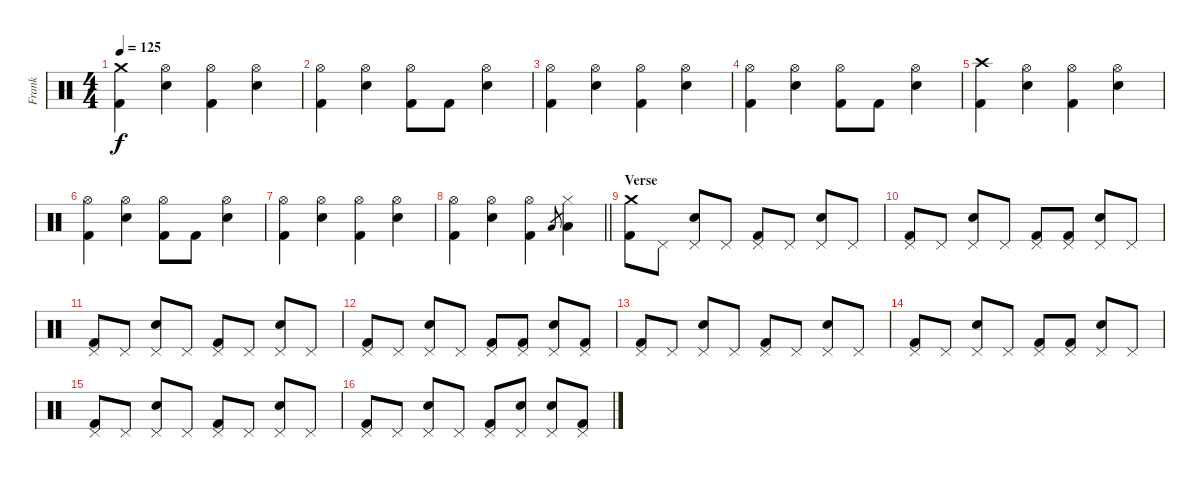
\track ("Frank" "Frank") {instrument percussion}
\staff {score}
\articulation defaults
\ts (4 4)
\tempo 125
\clef neutral
\ks c
("Crash medium (hit)" "Kick (hit) 2").4{dy f} ("Hi-Hat (open)" "Electric Snare (hit)").4 ("Hi-Hat (open)" "Kick (hit) 2").4 ("Hi-Hat (open)" "Electric Snare (hit)").4 |
("Hi-Hat (open)" "Kick (hit) 2").4 ("Hi-Hat (open)" "Electric Snare (hit)").4 ("Hi-Hat (open)" "Kick (hit) 2").8 "Kick (hit) 2".8 ("Hi-Hat (open)" "Electric Snare (hit)").4 |
("Hi-Hat (open)" "Kick (hit) 2").4 ("Hi-Hat (open)" "Electric Snare (hit)").4 ("Hi-Hat (open)" "Kick (hit) 2").4 ("Hi-Hat (open)" "Electric Snare (hit)").4 |
("Hi-Hat (open)" "Kick (hit) 2").4 ("Hi-Hat (open)" "Electric Snare (hit)").4 ("Hi-Hat (open)" "Kick (hit) 2").8 "Kick (hit) 2".8 ("Hi-Hat (open)" "Electric Snare (hit)").4 |
("Crash high (hit)" "Kick (hit) 2").4 ("Hi-Hat (open)" "Electric Snare (hit)").4 ("Hi-Hat (open)" "Kick (hit) 2").4 ("Hi-Hat (open)" "Electric Snare (hit)").4 |
("Hi-Hat (open)" "Kick (hit) 2").4 ("Hi-Hat (open)" "Electric Snare (hit)").4 ("Hi-Hat (open)" "Kick (hit) 2").8 "Kick (hit) 2".8 ("Hi-Hat (open)" "Electric Snare (hit)").4 |
("Hi-Hat (open)" "Kick (hit) 2").4 ("Hi-Hat (open)" "Electric Snare (hit)").4 ("Hi-Hat (open)" "Kick (hit) 2").4 ("Hi-Hat (open)" "Electric Snare (hit)").4 |
\barLineRight lightlight
("Hi-Hat (open)" "Kick (hit) 2").4 ("Hi-Hat (open)" "Electric Snare (hit)").4 ("Hi-Hat (open)" "Kick (hit) 2").4 "Low Floor Tom (hit)".8{gr} ("Hi-Hat (closed)" "Low Floor Tom (hit)").4 |
\section ("" "Verse")
("Crash medium (hit)" "Kick (hit) 2").8 "Pedal Hi-Hat (hit)".8 ("Pedal Hi-Hat (hit)" "Electric Snare (hit)").8 "Pedal Hi-Hat (hit)".8 ("Pedal Hi-Hat (hit)" "Kick (hit) 2").8 "Pedal Hi-Hat (hit)".8 ("Pedal Hi-Hat (hit)" "Electric Snare (hit)").8 "Pedal Hi-Hat (hit)".8 |
("Pedal Hi-Hat (hit)" "Kick (hit) 2").8 "Pedal Hi-Hat (hit)".8 ("Pedal Hi-Hat (hit)" "Electric Snare (hit)").8 "Pedal Hi-Hat (hit)".8 ("Pedal Hi-Hat (hit)" "Kick (hit) 2").8 ("Pedal Hi-Hat (hit)" "Kick (hit) 2").8 ("Pedal Hi-Hat (hit)" "Electric Snare (hit)").8 "Pedal Hi-Hat (hit)".8 |
("Pedal Hi-Hat (hit)" "Kick (hit) 2").8 "Pedal Hi-Hat (hit)".8 ("Pedal Hi-Hat (hit)" "Electric Snare (hit)").8 "Pedal Hi-Hat (hit)".8 ("Pedal Hi-Hat (hit)" "Kick (hit) 2").8 "Pedal Hi-Hat (hit)".8 ("Pedal Hi-Hat (hit)" "Electric Snare (hit)").8 "Pedal Hi-Hat (hit)".8 |
("Pedal Hi-Hat (hit)" "Kick (hit) 2").8 "Pedal Hi-Hat (hit)".8 ("Pedal Hi-Hat (hit)" "Electric Snare (hit)").8 "Pedal Hi-Hat (hit)".8 ("Pedal Hi-Hat (hit)" "Kick (hit) 2").8 ("Pedal Hi-Hat (hit)" "Kick (hit) 2").8 ("Pedal Hi-Hat (hit)" "Electric Snare (hit)").8 ("Pedal Hi-Hat (hit)" "Kick (hit) 2").8 |
("Pedal Hi-Hat (hit)" "Kick (hit) 2").8 "Pedal Hi-Hat (hit)".8 ("Pedal Hi-Hat (hit)" "Electric Snare (hit)").8 "Pedal Hi-Hat (hit)".8 ("Pedal Hi-Hat (hit)" "Kick (hit) 2").8 "Pedal Hi-Hat (hit)".8 ("Pedal Hi-Hat (hit)" "Electric Snare (hit)").8 "Pedal Hi-Hat (hit)".8 |
("Pedal Hi-Hat (hit)" "Kick (hit) 2").8 "Pedal Hi-Hat (hit)".8 ("Pedal Hi-Hat (hit)" "Electric Snare (hit)").8 "Pedal Hi-Hat (hit)".8 ("Pedal Hi-Hat (hit)" "Kick (hit) 2").8 ("Pedal Hi-Hat (hit)" "Kick (hit) 2").8 ("Pedal Hi-Hat (hit)" "Electric Snare (hit)").8 "Pedal Hi-Hat (hit)".8 |
("Pedal Hi-Hat (hit)" "Kick (hit) 2").8 "Pedal Hi-Hat (hit)".8 ("Pedal Hi-Hat (hit)" "Electric Snare (hit)").8 "Pedal Hi-Hat (hit)".8 ("Pedal Hi-Hat (hit)" "Kick (hit) 2").8 "Pedal Hi-Hat (hit)".8 ("Pedal Hi-Hat (hit)" "Electric Snare (hit)").8 "Pedal Hi-Hat (hit)".8 |
("Pedal Hi-Hat (hit)" "Kick (hit) 2").8 "Pedal Hi-Hat (hit)".8 ("Pedal Hi-Hat (hit)" "Electric Snare (hit)").8 "Pedal Hi-Hat (hit)".8 ("Pedal Hi-Hat (hit)" "Kick (hit) 2").8 ("Pedal Hi-Hat (hit)" "Electric Snare (hit)").8 ("Pedal Hi-Hat (hit)" "Electric Snare (hit)").8 ("Pedal Hi-Hat (hit)" "Kick (hit) 2").8
